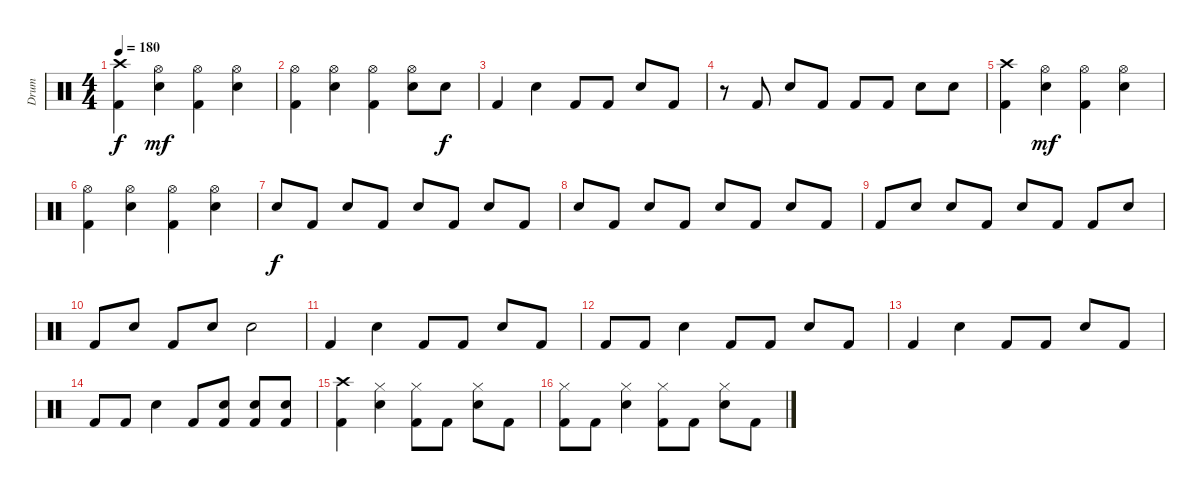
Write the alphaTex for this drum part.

\track ("Drum" "Drum") {instrument percussion}
\staff {score}
\articulation defaults
\ts (4 4)
\tempo 180
\clef neutral
\ks c
("Crash high (hit)" "Kick (hit) 2").4{dy f} ("Hi-Hat (open)" "Electric Snare (hit)").4{dy mf} ("Hi-Hat (open)" "Kick (hit) 2").4 ("Hi-Hat (open)" "Electric Snare (hit)").4 |
("Hi-Hat (open)" "Kick (hit) 2").4 ("Hi-Hat (open)" "Electric Snare (hit)").4 ("Hi-Hat (open)" "Kick (hit) 2").4 ("Hi-Hat (open)" "Electric Snare (hit)").8 "Electric Snare (hit)".8{dy f} |
"Kick (hit) 2".4 "Electric Snare (hit)".4 "Kick (hit) 2".8 "Kick (hit) 2".8 "Electric Snare (hit)".8 "Kick (hit) 2".8 |
r.8 "Kick (hit) 2".8 "Electric Snare (hit)".8 "Kick (hit) 2".8 "Kick (hit) 2".8 "Kick (hit) 2".8 "Electric Snare (hit)".8 "Electric Snare (hit)".8 |
("Crash high (hit)" "Kick (hit) 2").4 ("Hi-Hat (open)" "Electric Snare (hit)").4{dy mf} ("Hi-Hat (open)" "Kick (hit) 2").4 ("Hi-Hat (open)" "Electric Snare (hit)").4 |
("Hi-Hat (open)" "Kick (hit) 2").4 ("Hi-Hat (open)" "Electric Snare (hit)").4 ("Hi-Hat (open)" "Kick (hit) 2").4 ("Hi-Hat (open)" "Electric Snare (hit)").4 |
"Electric Snare (hit)".8{dy f} "Kick (hit) 2".8 "Electric Snare (hit)".8 "Kick (hit) 2".8 "Electric Snare (hit)".8 "Kick (hit) 2".8 "Electric Snare (hit)".8 "Kick (hit) 2".8 |
"Electric Snare (hit)".8 "Kick (hit) 2".8 "Electric Snare (hit)".8 "Kick (hit) 2".8 "Electric Snare (hit)".8 "Kick (hit) 2".8 "Electric Snare (hit)".8 "Kick (hit) 2".8 |
"Kick (hit) 2".8 "Electric Snare (hit)".8 "Electric Snare (hit)".8 "Kick (hit) 2".8 "Electric Snare (hit)".8 "Kick (hit) 2".8 "Kick (hit) 2".8 "Electric Snare (hit)".8 |
"Kick (hit) 2".8 "Electric Snare (hit)".8 "Kick (hit) 2".8 "Electric Snare (hit)".8 "Electric Snare (hit)".2 |
"Kick (hit) 2".4 "Electric Snare (hit)".4 "Kick (hit) 2".8 "Kick (hit) 2".8 "Electric Snare (hit)".8 "Kick (hit) 2".8 |
"Kick (hit) 2".8 "Kick (hit) 2".8 "Electric Snare (hit)".4 "Kick (hit) 2".8 "Kick (hit) 2".8 "Electric Snare (hit)".8 "Kick (hit) 2".8 |
"Kick (hit) 2".4 "Electric Snare (hit)".4 "Kick (hit) 2".8 "Kick (hit) 2".8 "Electric Snare (hit)".8 "Kick (hit) 2".8 |
"Kick (hit) 2".8 "Kick (hit) 2".8 "Electric Snare (hit)".4 "Kick (hit) 2".8 ("Electric Snare (hit)" "Kick (hit) 2").8 ("Electric Snare (hit)" "Kick (hit) 2").8 ("Electric Snare (hit)" "Kick (hit) 2").8 |
("Crash high (hit)" "Kick (hit) 2").4 ("Hi-Hat (closed)" "Electric Snare (hit)").4 ("Hi-Hat (closed)" "Kick (hit) 2").8 "Kick (hit) 2".8 ("Hi-Hat (closed)" "Electric Snare (hit)").8 "Kick (hit) 2".8 |
("Hi-Hat (closed)" "Kick (hit) 2").8 "Kick (hit) 2".8 ("Hi-Hat (closed)" "Electric Snare (hit)").4 ("Hi-Hat (closed)" "Kick (hit) 2").8 "Kick (hit) 2".8 ("Hi-Hat (closed)" "Electric Snare (hit)").8 "Kick (hit) 2".8
